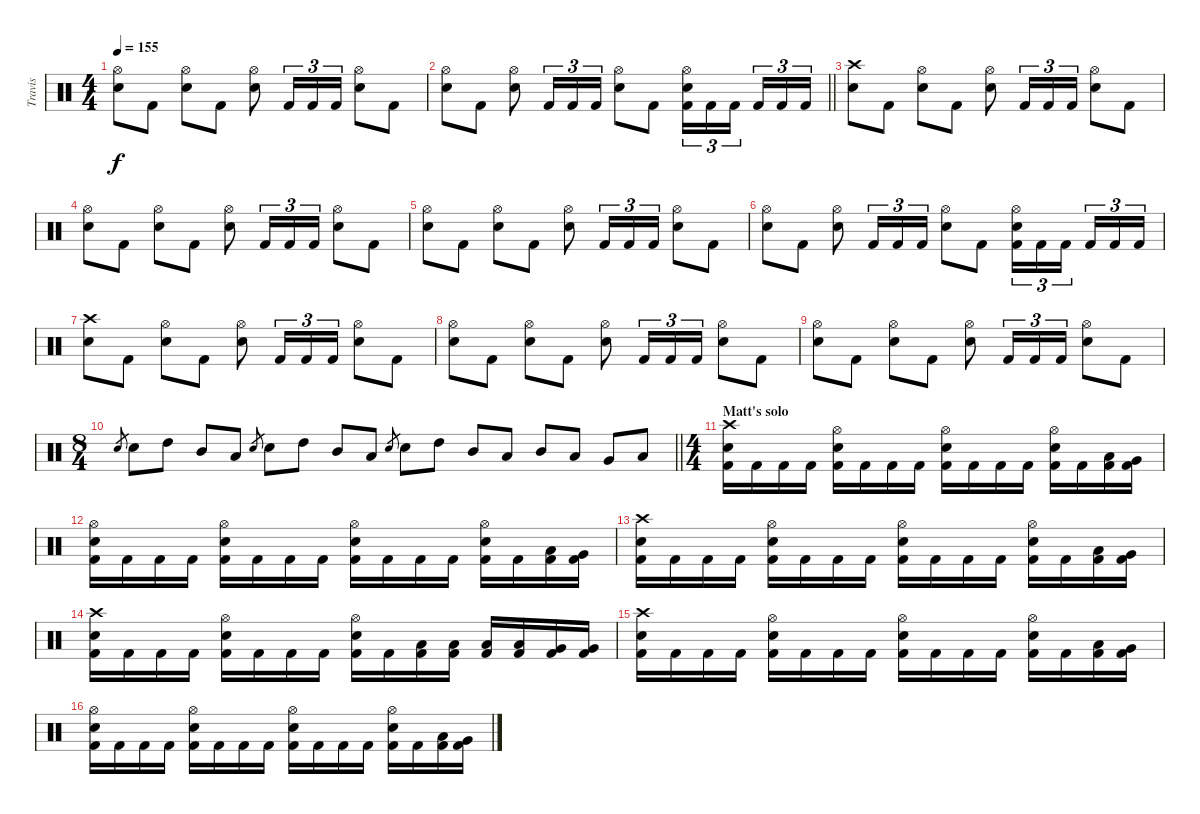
\track ("Travis" "Travis") {instrument percussion}
\staff {score}
\articulation defaults
\ts (4 4)
\tempo 155
\clef neutral
\ks c
("Hi-Hat (open)" "Snare (hit) 2").8{dy f} "Kick (hit) 2".8 ("Hi-Hat (open)" "Snare (hit) 2").8 "Kick (hit) 2".8 ("Hi-Hat (open)" "Snare (hit) 2").8 "Kick (hit) 2".16{tu (3 2)} "Kick (hit) 2".16{tu (3 2)} "Kick (hit) 2".16{tu (3 2)} ("Hi-Hat (open)" "Snare (hit) 2").8 "Kick (hit) 2".8 |
\barLineRight lightlight
("Hi-Hat (open)" "Snare (hit) 2").8 "Kick (hit) 2".8 ("Hi-Hat (open)" "Snare (hit) 2").8 "Kick (hit) 2".16{tu (3 2)} "Kick (hit) 2".16{tu (3 2)} "Kick (hit) 2".16{tu (3 2)} ("Hi-Hat (open)" "Snare (hit) 2").8 "Kick (hit) 2".8 ("Hi-Hat (open)" "Snare (hit) 2" "Kick (hit) 2").16{tu (3 2)} "Kick (hit) 2".16{tu (3 2)} "Kick (hit) 2".16{tu (3 2)} "Kick (hit) 2".16{tu (3 2)} "Kick (hit) 2".16{tu (3 2)} "Kick (hit) 2".16{tu (3 2)} |
("Crash high (hit)" "Snare (hit) 2").8 "Kick (hit) 2".8 ("Hi-Hat (open)" "Snare (hit) 2").8 "Kick (hit) 2".8 ("Hi-Hat (open)" "Snare (hit) 2").8 "Kick (hit) 2".16{tu (3 2)} "Kick (hit) 2".16{tu (3 2)} "Kick (hit) 2".16{tu (3 2)} ("Hi-Hat (open)" "Snare (hit) 2").8 "Kick (hit) 2".8 |
("Hi-Hat (open)" "Snare (hit) 2").8 "Kick (hit) 2".8 ("Hi-Hat (open)" "Snare (hit) 2").8 "Kick (hit) 2".8 ("Hi-Hat (open)" "Snare (hit) 2").8 "Kick (hit) 2".16{tu (3 2)} "Kick (hit) 2".16{tu (3 2)} "Kick (hit) 2".16{tu (3 2)} ("Hi-Hat (open)" "Snare (hit) 2").8 "Kick (hit) 2".8 |
("Hi-Hat (open)" "Snare (hit) 2").8 "Kick (hit) 2".8 ("Hi-Hat (open)" "Snare (hit) 2").8 "Kick (hit) 2".8 ("Hi-Hat (open)" "Snare (hit) 2").8 "Kick (hit) 2".16{tu (3 2)} "Kick (hit) 2".16{tu (3 2)} "Kick (hit) 2".16{tu (3 2)} ("Hi-Hat (open)" "Snare (hit) 2").8 "Kick (hit) 2".8 |
("Hi-Hat (open)" "Snare (hit) 2").8 "Kick (hit) 2".8 ("Hi-Hat (open)" "Snare (hit) 2").8 "Kick (hit) 2".16{tu (3 2)} "Kick (hit) 2".16{tu (3 2)} "Kick (hit) 2".16{tu (3 2)} ("Hi-Hat (open)" "Snare (hit) 2").8 "Kick (hit) 2".8 ("Hi-Hat (open)" "Snare (hit) 2" "Kick (hit) 2").16{tu (3 2)} "Kick (hit) 2".16{tu (3 2)} "Kick (hit) 2".16{tu (3 2)} "Kick (hit) 2".16{tu (3 2)} "Kick (hit) 2".16{tu (3 2)} "Kick (hit) 2".16{tu (3 2)} |
("Crash high (hit)" "Snare (hit) 2").8 "Kick (hit) 2".8 ("Hi-Hat (open)" "Snare (hit) 2").8 "Kick (hit) 2".8 ("Hi-Hat (open)" "Snare (hit) 2").8 "Kick (hit) 2".16{tu (3 2)} "Kick (hit) 2".16{tu (3 2)} "Kick (hit) 2".16{tu (3 2)} ("Hi-Hat (open)" "Snare (hit) 2").8 "Kick (hit) 2".8 |
("Hi-Hat (open)" "Snare (hit) 2").8 "Kick (hit) 2".8 ("Hi-Hat (open)" "Snare (hit) 2").8 "Kick (hit) 2".8 ("Hi-Hat (open)" "Snare (hit) 2").8 "Kick (hit) 2".16{tu (3 2)} "Kick (hit) 2".16{tu (3 2)} "Kick (hit) 2".16{tu (3 2)} ("Hi-Hat (open)" "Snare (hit) 2").8 "Kick (hit) 2".8 |
("Hi-Hat (open)" "Snare (hit) 2").8 "Kick (hit) 2".8 ("Hi-Hat (open)" "Snare (hit) 2").8 "Kick (hit) 2".8 ("Hi-Hat (open)" "Snare (hit) 2").8 "Kick (hit) 2".16{tu (3 2)} "Kick (hit) 2".16{tu (3 2)} "Kick (hit) 2".16{tu (3 2)} ("Hi-Hat (open)" "Snare (hit) 2").8 "Kick (hit) 2".8 |
\ts (8 4)
\barLineRight lightlight "Snare (hit) 2".8{gr} "Snare (hit) 2".8 "High Tom (hit)".8 "Mid Tom (hit)".8 "Low Tom (hit)".8 "Snare (hit) 2".8{gr} "Snare (hit) 2".8 "High Tom (hit)".8 "Mid Tom (hit)".8 "Low Tom (hit)".8 "Snare (hit) 2".8{gr} "Snare (hit) 2".8 "High Tom (hit)".8 "Mid Tom (hit)".8 "Low Tom (hit)".8 "Mid Tom (hit)".8 "Low Tom (hit)".8 "Very Low Tom (hit)".8 "Low Floor Tom (hit)".8
|
\ts (4 4)
\section ("" "Matt's solo")
("Crash high (hit)" "Snare (hit) 2" "Kick (hit) 2").16 "Kick (hit) 2".16 "Kick (hit) 2".16 "Kick (hit) 2".16 ("Hi-Hat (open)" "Snare (hit) 2" "Kick (hit) 2").16 "Kick (hit) 2".16 "Kick (hit) 2".16 "Kick (hit) 2".16 ("Hi-Hat (open)" "Snare (hit) 2" "Kick (hit) 2").16 "Kick (hit) 2".16 "Kick (hit) 2".16 "Kick (hit) 2".16 ("Hi-Hat (open)" "Snare (hit) 2" "Kick (hit) 2").16 "Kick (hit) 2".16 ("Low Tom (hit)" "Kick (hit) 2").16 ("Very Low Tom (hit)" "Kick (hit) 2").16 |
("Hi-Hat (open)" "Snare (hit) 2" "Kick (hit) 2").16 "Kick (hit) 2".16 "Kick (hit) 2".16 "Kick (hit) 2".16 ("Hi-Hat (open)" "Snare (hit) 2" "Kick (hit) 2").16 "Kick (hit) 2".16 "Kick (hit) 2".16 "Kick (hit) 2".16 ("Hi-Hat (open)" "Snare (hit) 2" "Kick (hit) 2").16 "Kick (hit) 2".16 "Kick (hit) 2".16 "Kick (hit) 2".16 ("Hi-Hat (open)" "Snare (hit) 2" "Kick (hit) 2").16 "Kick (hit) 2".16 ("Low Tom (hit)" "Kick (hit) 2").16 ("Very Low Tom (hit)" "Kick (hit) 2").16 |
("Crash high (hit)" "Snare (hit) 2" "Kick (hit) 2").16 "Kick (hit) 2".16 "Kick (hit) 2".16 "Kick (hit) 2".16 ("Hi-Hat (open)" "Snare (hit) 2" "Kick (hit) 2").16 "Kick (hit) 2".16 "Kick (hit) 2".16 "Kick (hit) 2".16 ("Hi-Hat (open)" "Snare (hit) 2" "Kick (hit) 2").16 "Kick (hit) 2".16 "Kick (hit) 2".16 "Kick (hit) 2".16 ("Hi-Hat (open)" "Snare (hit) 2" "Kick (hit) 2").16 "Kick (hit) 2".16 ("Low Tom (hit)" "Kick (hit) 2").16 ("Very Low Tom (hit)" "Kick (hit) 2").16 |
("Crash high (hit)" "Snare (hit) 2" "Kick (hit) 2").16 "Kick (hit) 2".16 "Kick (hit) 2".16 "Kick (hit) 2".16 ("Hi-Hat (open)" "Snare (hit) 2" "Kick (hit) 2").16 "Kick (hit) 2".16 "Kick (hit) 2".16 "Kick (hit) 2".16 ("Hi-Hat (open)" "Snare (hit) 2" "Kick (hit) 2").16 "Kick (hit) 2".16 ("Low Tom (hit)" "Kick (hit) 2").16 ("Low Tom (hit)" "Kick (hit) 2").16 ("Low Tom (hit)" "Kick (hit) 2").16 ("Low Tom (hit)" "Kick (hit) 2").16 ("Very Low Tom (hit)" "Kick (hit) 2").16 ("Very Low Tom (hit)" "Kick (hit) 2").16 |
("Crash high (hit)" "Snare (hit) 2" "Kick (hit) 2").16 "Kick (hit) 2".16 "Kick (hit) 2".16 "Kick (hit) 2".16 ("Hi-Hat (open)" "Snare (hit) 2" "Kick (hit) 2").16 "Kick (hit) 2".16 "Kick (hit) 2".16 "Kick (hit) 2".16 ("Hi-Hat (open)" "Snare (hit) 2" "Kick (hit) 2").16 "Kick (hit) 2".16 "Kick (hit) 2".16 "Kick (hit) 2".16 ("Hi-Hat (open)" "Snare (hit) 2" "Kick (hit) 2").16 "Kick (hit) 2".16 ("Low Tom (hit)" "Kick (hit) 2").16 ("Very Low Tom (hit)" "Kick (hit) 2").16 |
("Hi-Hat (open)" "Snare (hit) 2" "Kick (hit) 2").16 "Kick (hit) 2".16 "Kick (hit) 2".16 "Kick (hit) 2".16 ("Hi-Hat (open)" "Snare (hit) 2" "Kick (hit) 2").16 "Kick (hit) 2".16 "Kick (hit) 2".16 "Kick (hit) 2".16 ("Hi-Hat (open)" "Snare (hit) 2" "Kick (hit) 2").16 "Kick (hit) 2".16 "Kick (hit) 2".16 "Kick (hit) 2".16 ("Hi-Hat (open)" "Snare (hit) 2" "Kick (hit) 2").16 "Kick (hit) 2".16 ("Low Tom (hit)" "Kick (hit) 2").16 ("Very Low Tom (hit)" "Kick (hit) 2").16
